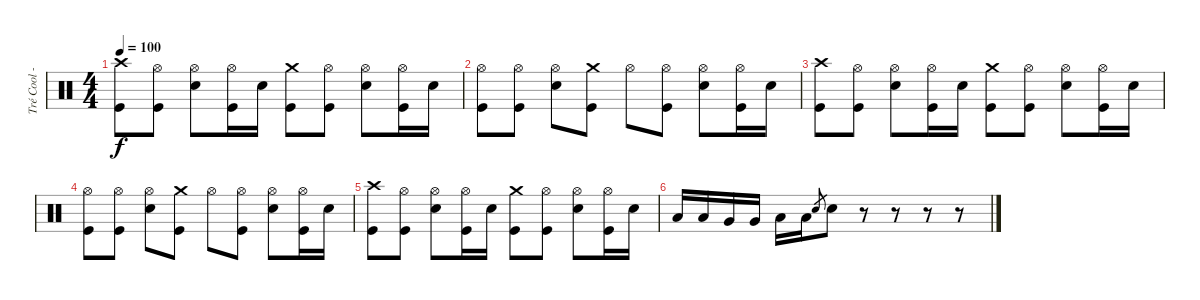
\track ("Tré Cool - Drums" "Tré Cool -") {instrument percussion}
\staff {score}
\articulation defaults
\ts (4 4)
\tempo 100
\clef neutral
\ks c
("Crash high (hit)" "Kick (hit)").8{dy f} ("Hi-Hat (open)" "Kick (hit)").8 ("Hi-Hat (open)" "Electric Snare (hit)").8 ("Hi-Hat (open)" "Kick (hit)").16 "Electric Snare (hit)".16 ("Crash medium (hit)" "Kick (hit)").8 ("Hi-Hat (open)" "Kick (hit)").8 ("Hi-Hat (open)" "Electric Snare (hit)").8 ("Hi-Hat (open)" "Kick (hit)").16 "Electric Snare (hit)".16 |
("Hi-Hat (open)" "Kick (hit)").8 ("Hi-Hat (open)" "Kick (hit)").8 ("Hi-Hat (open)" "Electric Snare (hit)").8 ("Crash medium (hit)" "Kick (hit)").8 "Hi-Hat (open)".8 ("Hi-Hat (open)" "Kick (hit)").8 ("Hi-Hat (open)" "Electric Snare (hit)").8 ("Hi-Hat (open)" "Kick (hit)").16 "Electric Snare (hit)".16 |
("Crash high (hit)" "Kick (hit)").8 ("Hi-Hat (open)" "Kick (hit)").8 ("Hi-Hat (open)" "Electric Snare (hit)").8 ("Hi-Hat (open)" "Kick (hit)").16 "Electric Snare (hit)".16 ("Crash medium (hit)" "Kick (hit)").8 ("Hi-Hat (open)" "Kick (hit)").8 ("Hi-Hat (open)" "Electric Snare (hit)").8 ("Hi-Hat (open)" "Kick (hit)").16 "Electric Snare (hit)".16 |
("Hi-Hat (open)" "Kick (hit)").8 ("Hi-Hat (open)" "Kick (hit)").8 ("Hi-Hat (open)" "Electric Snare (hit)").8 ("Crash medium (hit)" "Kick (hit)").8 "Hi-Hat (open)".8 ("Hi-Hat (open)" "Kick (hit)").8 ("Hi-Hat (open)" "Electric Snare (hit)").8 ("Hi-Hat (open)" "Kick (hit)").16 "Electric Snare (hit)".16 |
("Crash high (hit)" "Kick (hit)").8 ("Hi-Hat (open)" "Kick (hit)").8 ("Hi-Hat (open)" "Electric Snare (hit)").8 ("Hi-Hat (open)" "Kick (hit)").16 "Electric Snare (hit)".16 ("Crash medium (hit)" "Kick (hit)").8 ("Hi-Hat (open)" "Kick (hit)").8 ("Hi-Hat (open)" "Electric Snare (hit)").8 ("Hi-Hat (open)" "Kick (hit)").16 "Electric Snare (hit)".16 |
"Low Tom (hit)".16 "Low Tom (hit)".16 "Very Low Tom (hit)".16 "Very Low Tom (hit)".16 "Low Floor Tom (hit)".16 "Low Floor Tom (hit)".16 "Electric Snare (hit)".8{gr} "Electric Snare (hit)".8 r.8 r.8 r.8 r.8
